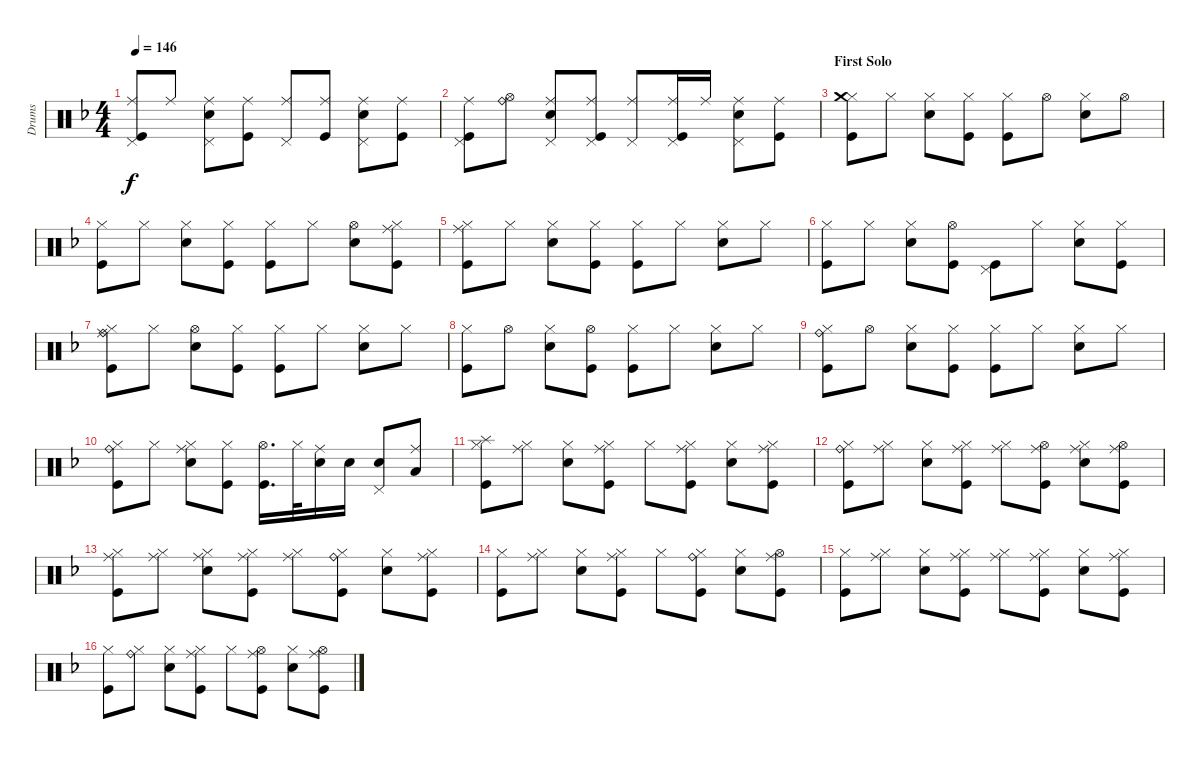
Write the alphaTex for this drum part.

\track ("Drums" "Drums") {instrument percussion}
\staff {score}
\articulation defaults
\ts (4 4)
\tempo 146
\clef neutral
\ks f
("Ride (middle)" "Kick (hit)" "Pedal Hi-Hat (hit)").8{dy f} "Ride (middle)".8 ("Snare (hit) 2" "Pedal Hi-Hat (hit)" "Ride (middle)").8 ("Kick (hit)" "Ride (middle)").8 ("Pedal Hi-Hat (hit)" "Ride (middle)").8 ("Kick (hit)" "Ride (middle)").8 ("Snare (hit) 2" "Pedal Hi-Hat (hit)" "Ride (middle)").8 ("Kick (hit)" "Ride (middle)").8 |
("Kick (hit)" "Pedal Hi-Hat (hit)" "Ride (middle)").8 ("Hi-Hat (open)" "Ride (bell)").8 ("Snare (hit) 2" "Pedal Hi-Hat (hit)" "Ride (middle)").8 ("Kick (hit)" "Pedal Hi-Hat (hit)" "Ride (middle)").8 ("Pedal Hi-Hat (hit)" "Ride (middle)").8 ("Ride (middle)" "Kick (hit)" "Pedal Hi-Hat (hit)").16 "Ride (middle)".16 ("Ride (middle)" "Snare (hit) 2" "Pedal Hi-Hat (hit)").8 ("Kick (hit)" "Ride (middle)").8 |
\section ("" "First Solo")
("Kick (hit)" "Hi-Hat (closed)" "Crash medium (hit)").8 "Hi-Hat (closed)".8 ("Snare (hit) 2" "Hi-Hat (closed)").8 ("Kick (hit)" "Hi-Hat (closed)").8 ("Kick (hit)" "Hi-Hat (closed)").8 "Hi-Hat (open)".8 ("Snare (hit) 2" "Hi-Hat (closed)").8 "Hi-Hat (open)".8 |
("Kick (hit)" "Hi-Hat (closed)").8 "Hi-Hat (closed)".8 ("Snare (hit) 2" "Hi-Hat (closed)").8 ("Kick (hit)" "Hi-Hat (closed)").8 ("Kick (hit)" "Hi-Hat (closed)").8 "Hi-Hat (closed)".8 ("Snare (hit) 2" "Hi-Hat (open)").8 ("Ride (middle)" "Kick (hit)" "Hi-Hat (closed)").8 |
("Kick (hit)" "Hi-Hat (closed)" "Ride (middle)").8 "Hi-Hat (closed)".8 ("Snare (hit) 2" "Hi-Hat (closed)").8 ("Kick (hit)" "Hi-Hat (closed)").8 ("Kick (hit)" "Hi-Hat (closed)").8 "Hi-Hat (closed)".8 ("Snare (hit) 2" "Hi-Hat (closed)").8 "Hi-Hat (closed)".8 |
("Kick (hit)" "Hi-Hat (closed)").8 "Hi-Hat (closed)".8 ("Snare (hit) 2" "Hi-Hat (closed)").8 ("Kick (hit)" "Hi-Hat (open)").8 ("Kick (hit)" "Pedal Hi-Hat (hit)").8 "Hi-Hat (closed)".8 ("Snare (hit) 2" "Hi-Hat (closed)").8 ("Kick (hit)" "Hi-Hat (closed)").8 |
("Kick (hit)" "Hi-Hat (closed)" "Ride (middle)" "Ride (bell)").8 "Hi-Hat (closed)".8 ("Snare (hit) 2" "Hi-Hat (open)").8 ("Kick (hit)" "Hi-Hat (closed)").8 ("Kick (hit)" "Hi-Hat (closed)").8 "Hi-Hat (closed)".8 ("Snare (hit) 2" "Hi-Hat (closed)").8 "Hi-Hat (closed)".8 |
("Kick (hit)" "Hi-Hat (closed)").8 "Hi-Hat (open)".8 ("Snare (hit) 2" "Hi-Hat (closed)").8 ("Kick (hit)" "Hi-Hat (open)").8 ("Kick (hit)" "Hi-Hat (closed)").8 "Hi-Hat (closed)".8 ("Snare (hit) 2" "Hi-Hat (closed)").8 "Hi-Hat (closed)".8 |
("Kick (hit)" "Hi-Hat (closed)" "Ride (bell)").8 "Hi-Hat (open)".8 ("Snare (hit) 2" "Hi-Hat (closed)").8 ("Kick (hit)" "Hi-Hat (closed)").8 ("Kick (hit)" "Hi-Hat (closed)").8 "Hi-Hat (closed)".8 ("Snare (hit) 2" "Hi-Hat (closed)").8 "Hi-Hat (closed)".8 |
("Kick (hit)" "Hi-Hat (closed)" "Ride (bell)").8 "Hi-Hat (closed)".8 ("Ride (middle)" "Snare (hit) 2" "Hi-Hat (closed)").8 ("Kick (hit)" "Hi-Hat (closed)").8 ("Kick (hit)" "Hi-Hat (open)").16{d} "Hi-Hat (closed)".32 ("Snare (hit) 2" "Ride (middle)").16 "Snare (hit) 2".16 ("Snare (hit) 2" "Pedal Hi-Hat (hit)").8 ("Low Floor Tom (hit)" "Ride (middle)").8 |
("Kick (hit)" "Hi-Hat (closed)" "Splash (hit)").8 ("Hi-Hat (closed)" "Ride (middle)").8 ("Snare (hit) 2" "Hi-Hat (closed)").8 ("Hi-Hat (closed)" "Ride (middle)" "Kick (hit)").8 "Hi-Hat (closed)".8 ("Kick (hit)" "Hi-Hat (closed)" "Ride (middle)").8 ("Snare (hit) 2" "Hi-Hat (closed)").8 ("Hi-Hat (closed)" "Ride (middle)" "Kick (hit)").8 |
("Ride (bell)" "Kick (hit)" "Hi-Hat (closed)").8 ("Hi-Hat (closed)" "Ride (middle)").8 ("Snare (hit) 2" "Hi-Hat (closed)").8 ("Kick (hit)" "Hi-Hat (closed)" "Ride (middle)").8 ("Hi-Hat (closed)" "Ride (middle)").8 ("Kick (hit)" "Hi-Hat (open)" "Ride (middle)").8 ("Snare (hit) 2" "Hi-Hat (closed)" "Ride (middle)").8 ("Kick (hit)" "Hi-Hat (open)" "Ride (middle)").8 |
("Ride (middle)" "Kick (hit)" "Hi-Hat (closed)").8 ("Hi-Hat (closed)" "Ride (middle)").8 ("Ride (middle)" "Snare (hit) 2" "Hi-Hat (closed)").8 ("Hi-Hat (closed)" "Ride (middle)" "Kick (hit)").8 ("Hi-Hat (closed)" "Ride (middle)").8 ("Ride (bell)" "Kick (hit)" "Hi-Hat (closed)").8 ("Snare (hit) 2" "Hi-Hat (closed)").8 ("Kick (hit)" "Hi-Hat (closed)" "Ride (middle)").8 |
("Kick (hit)" "Hi-Hat (closed)").8 ("Hi-Hat (closed)" "Ride (middle)").8 ("Snare (hit) 2" "Hi-Hat (closed)").8 ("Kick (hit)" "Hi-Hat (closed)" "Ride (middle)").8 "Hi-Hat (closed)".8 ("Kick (hit)" "Hi-Hat (closed)" "Ride (bell)").8 ("Snare (hit) 2" "Hi-Hat (closed)").8 ("Kick (hit)" "Hi-Hat (open)" "Ride (middle)").8 |
("Kick (hit)" "Hi-Hat (closed)").8 ("Hi-Hat (closed)" "Ride (middle)").8 ("Snare (hit) 2" "Hi-Hat (closed)").8 ("Kick (hit)" "Hi-Hat (closed)" "Ride (middle)").8 ("Hi-Hat (closed)" "Ride (middle)").8 ("Kick (hit)" "Hi-Hat (closed)" "Ride (middle)").8 ("Snare (hit) 2" "Hi-Hat (closed)").8 ("Ride (middle)" "Kick (hit)" "Hi-Hat (closed)").8 |
("Kick (hit)" "Hi-Hat (closed)").8 ("Hi-Hat (closed)" "Ride (bell)").8 ("Snare (hit) 2" "Hi-Hat (closed)").8 ("Kick (hit)" "Hi-Hat (closed)" "Ride (middle)").8 "Hi-Hat (closed)".8 ("Kick (hit)" "Hi-Hat (open)" "Ride (middle)").8 ("Snare (hit) 2" "Hi-Hat (closed)").8 ("Kick (hit)" "Hi-Hat (open)" "Ride (middle)").8
